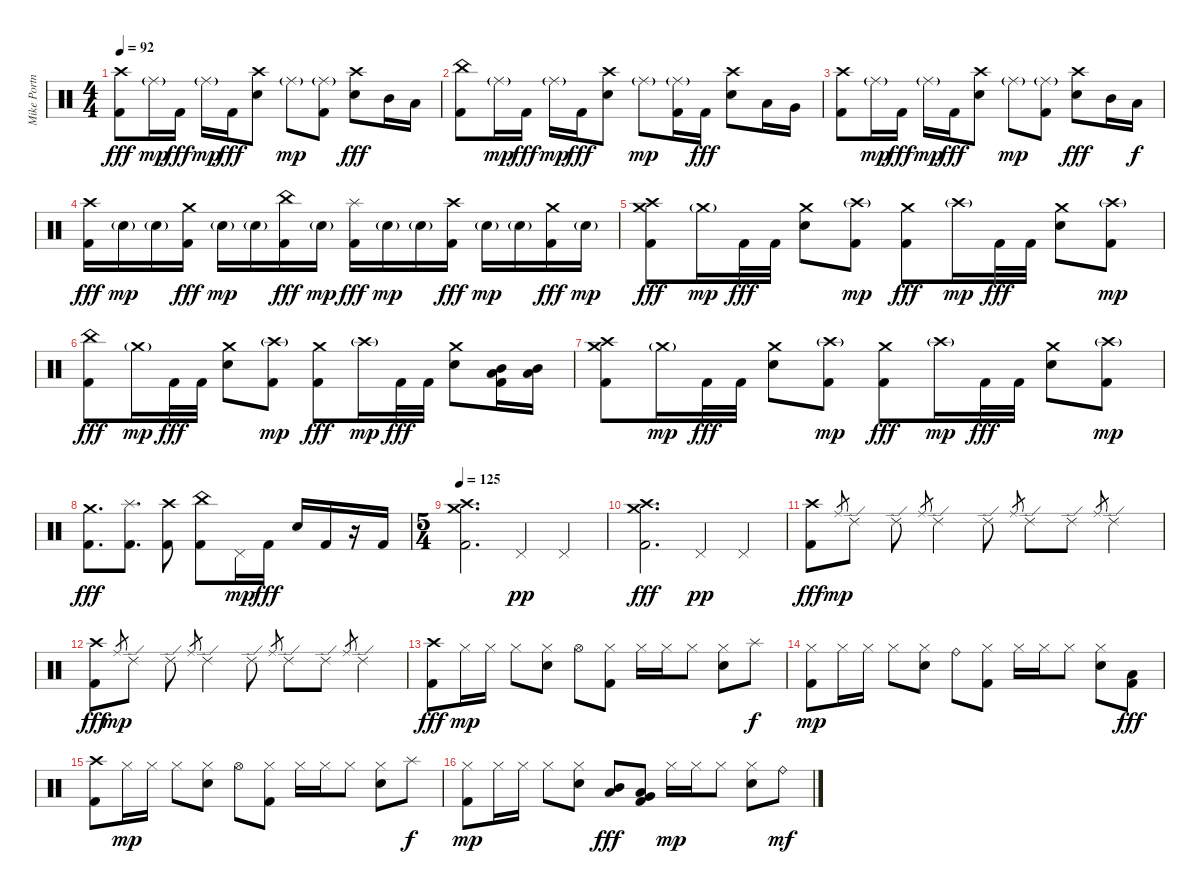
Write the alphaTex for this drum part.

\track ("Mike Portnoy" "Mike Portn") {instrument percussion}
\staff {score}
\articulation defaults
\ts (4 4)
\tempo 92
\clef neutral
\ks c
("Kick (hit) 2" "Crash high (hit)").8{dy fff} "Ride (middle)"{g}.16{dy mp} "Kick (hit) 2".16{dy fff} "Ride (middle)"{g}.16{dy mp} "Kick (hit) 2".16{dy fff} ("Electric Snare (hit)" "Crash high (hit)").8 "Ride (middle)"{g}.8{dy mp} ("Kick (hit) 2" "Ride (middle)"{g}).8 ("Electric Snare (hit)" "Crash high (hit)").8{dy fff} "Mid Tom (hit)".16 "Low Tom (hit)".16 |
("Kick (hit) 2" "China (hit)").8 "Ride (middle)"{g}.16{dy mp} "Kick (hit) 2".16{dy fff} "Ride (middle)"{g}.16{dy mp} "Kick (hit) 2".16{dy fff} ("Electric Snare (hit)" "Crash high (hit)").8 "Ride (middle)"{g}.8{dy mp} ("Kick (hit) 2" "Ride (middle)"{g}).16 "Kick (hit) 2".16{dy fff} ("Electric Snare (hit)" "Crash high (hit)").8 "Low Tom (hit)".16 "Very Low Tom (hit)".16 |
("Kick (hit) 2" "Crash high (hit)").8 "Ride (middle)"{g}.16{dy mp} "Kick (hit) 2".16{dy fff} "Ride (middle)"{g}.16{dy mp} "Kick (hit) 2".16{dy fff} ("Electric Snare (hit)" "Crash high (hit)").8 "Ride (middle)"{g}.8{dy mp} ("Kick (hit) 2" "Ride (middle)"{g}).8 ("Electric Snare (hit)" "Crash high (hit)").8{dy fff} "Mid Tom (hit)".16 "Low Tom (hit)".16{dy f} |
("Kick (hit) 2" "Crash high (hit)").16{dy fff} "Electric Snare (hit)"{g}.16{dy mp} "Electric Snare (hit)"{g}.16 ("Kick (hit) 2" "Crash medium (hit)").16{dy fff} "Electric Snare (hit)"{g}.16{dy mp} "Electric Snare (hit)"{g}.16 ("Kick (hit) 2" "China (hit)").16{dy fff} "Electric Snare (hit)"{g}.16{dy mp} ("Kick (hit) 2" "Splash (hit)").16{dy fff} "Electric Snare (hit)"{g}.16{dy mp} "Electric Snare (hit)"{g}.16 ("Kick (hit) 2" "Crash high (hit)").16{dy fff} "Electric Snare (hit)"{g}.16{dy mp} "Electric Snare (hit)"{g}.16 ("Kick (hit) 2" "Crash medium (hit)").16{dy fff} "Electric Snare (hit)"{g}.16{dy mp} |
("Kick (hit) 2" "Crash medium (hit)" "Crash high (hit)").8{dy fff} "Crash medium (hit)"{g}.16{dy mp} "Kick (hit) 2".32{dy fff} "Kick (hit) 2".32 ("Electric Snare (hit)" "Crash medium (hit)").8 ("Kick (hit) 2" "Crash high (hit)"{g}).8{dy mp} ("Kick (hit) 2" "Crash medium (hit)").8{dy fff} "Crash high (hit)"{g}.16{dy mp} "Kick (hit) 2".32{dy fff} "Kick (hit) 2".32 ("Electric Snare (hit)" "Crash medium (hit)").8 ("Kick (hit) 2" "Crash high (hit)"{g}).8{dy mp} |
("Kick (hit) 2" "China (hit)").8{dy fff} "Crash medium (hit)"{g}.16{dy mp} "Kick (hit) 2".32{dy fff} "Kick (hit) 2".32 ("Electric Snare (hit)" "Crash medium (hit)").8 ("Kick (hit) 2" "Crash high (hit)"{g}).8{dy mp} ("Kick (hit) 2" "Crash medium (hit)").8{dy fff} "Crash high (hit)"{g}.16{dy mp} "Kick (hit) 2".32{dy fff} "Kick (hit) 2".32 ("Electric Snare (hit)" "Crash medium (hit)").8 ("Kick (hit) 2" "Low Tom (hit)" "Mid Tom (hit)").16 ("Low Tom (hit)" "Mid Tom (hit)").16 |
("Kick (hit) 2" "Crash medium (hit)" "Crash high (hit)").8 "Crash medium (hit)"{g}.16{dy mp} "Kick (hit) 2".32{dy fff} "Kick (hit) 2".32 ("Electric Snare (hit)" "Crash medium (hit)").8 ("Kick (hit) 2" "Crash high (hit)"{g}).8{dy mp} ("Kick (hit) 2" "Crash medium (hit)").8{dy fff} "Crash high (hit)"{g}.16{dy mp} "Kick (hit) 2".32{dy fff} "Kick (hit) 2".32 ("Electric Snare (hit)" "Crash medium (hit)").8 ("Kick (hit) 2" "Crash high (hit)"{g}).8{dy mp} |
("Kick (hit) 2" "Crash medium (hit)").8{d dy fff} ("Kick (hit) 2" "Splash (hit)").8{d} ("Kick (hit) 2" "Crash high (hit)").8 ("Kick (hit) 2" "China (hit)").8 "Pedal Hi-Hat (hit)".16{dy mp} "Kick (hit) 2".16{dy fff} "Electric Snare (hit)".16 "Kick (hit) 2".16 r.16 "Kick (hit) 2".16 |
\ts (5 4)
\tempo 125
("Kick (hit) 2" "Crash high (hit)" "Crash medium (hit)").2{d} "Pedal Hi-Hat (hit)".4{dy pp} "Pedal Hi-Hat (hit)".4 |
("Kick (hit) 2" "Crash high (hit)" "Crash medium (hit)").2{d dy fff} "Pedal Hi-Hat (hit)".4{dy pp} "Pedal Hi-Hat (hit)".4 |
("Kick (hit) 2" "Crash high (hit)").8{dy fff} "Ride (middle)".8{gr dy mp} "Ride (edge) 2".8 "Ride (edge) 2".8 "Ride (middle)".8{gr} "Ride (edge) 2".4 "Ride (edge) 2".8 "Ride (middle)".8{gr} "Ride (edge) 2".8 "Ride (edge) 2".8 "Ride (middle)".8{gr} "Ride (edge) 2".4 |
("Kick (hit) 2" "Crash high (hit)").8{dy fff} "Ride (middle)".8{gr dy mp} "Ride (edge) 2".8 "Ride (edge) 2".8 "Ride (middle)".8{gr} "Ride (edge) 2".4 "Ride (edge) 2".8 "Ride (middle)".8{gr} "Ride (edge) 2".8 "Ride (edge) 2".8 "Ride (middle)".8{gr} "Ride (edge) 2".4 |
("Kick (hit) 2" "Crash high (hit)").8{dy fff} "Hi-Hat (closed)".16{dy mp} "Hi-Hat (closed)".16 "Hi-Hat (closed)".8 ("Electric Snare (hit)" "Hi-Hat (closed)").8 "Hi-Hat (open)".8 ("Kick (hit) 2" "Hi-Hat (closed)").8 "Hi-Hat (closed)".16 "Hi-Hat (closed)".16 "Hi-Hat (closed)".8 ("Electric Snare (hit)" "Hi-Hat (closed)").8 "Splash (hit)".8{dy f} |
("Kick (hit) 2" "Hi-Hat (closed)").8{dy mp} "Hi-Hat (closed)".16 "Hi-Hat (closed)".16 "Hi-Hat (closed)".8 ("Electric Snare (hit)" "Hi-Hat (closed)").8 "Ride (bell)".8 ("Kick (hit) 2" "Hi-Hat (closed)").8 "Hi-Hat (closed)".16 "Hi-Hat (closed)".16 "Hi-Hat (closed)".8 ("Electric Snare (hit)" "Hi-Hat (closed)").8 ("Kick (hit) 2" "Low Tom (hit)").8{dy fff} |
("Kick (hit) 2" "Crash high (hit)").8 "Hi-Hat (closed)".16{dy mp} "Hi-Hat (closed)".16 "Hi-Hat (closed)".8 ("Electric Snare (hit)" "Hi-Hat (closed)").8 "Hi-Hat (open)".8 ("Kick (hit) 2" "Hi-Hat (closed)").8 "Hi-Hat (closed)".16 "Hi-Hat (closed)".16 "Hi-Hat (closed)".8 ("Electric Snare (hit)" "Hi-Hat (closed)").8 "Splash (hit)".8{dy f} |
("Kick (hit) 2" "Hi-Hat (closed)").8{dy mp} "Hi-Hat (closed)".16 "Hi-Hat (closed)".16 "Hi-Hat (closed)".8 ("Electric Snare (hit)" "Hi-Hat (closed)").8 ("Low Tom (hit)" "Mid Tom (hit)").8{dy fff} ("Kick (hit) 2" "Very Low Tom (hit)" "Low Tom (hit)").8 "Hi-Hat (closed)".16{dy mp} "Hi-Hat (closed)".16 "Hi-Hat (closed)".8 ("Electric Snare (hit)" "Hi-Hat (closed)").8 "Ride (bell)".8{dy mf}
